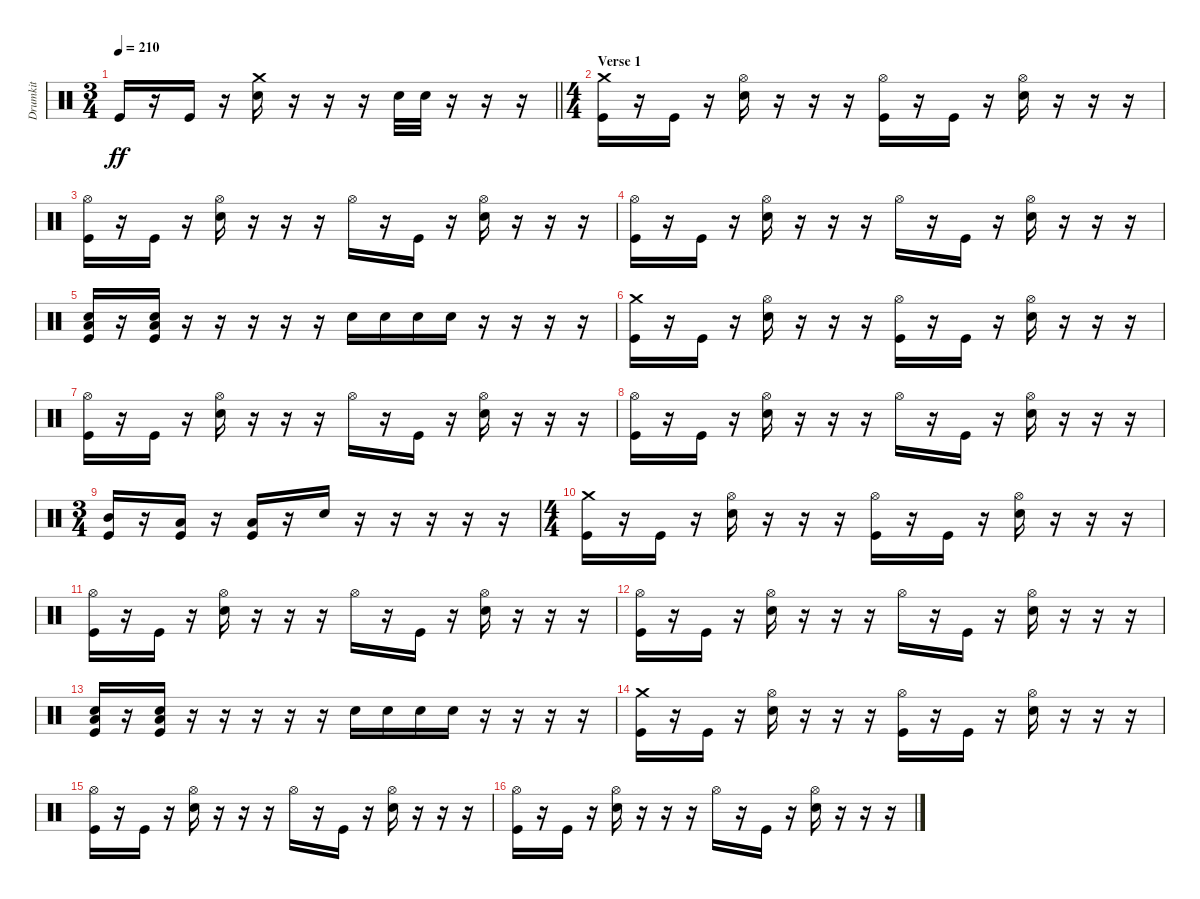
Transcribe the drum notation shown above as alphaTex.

\track ("Drumkit" "Drumkit") {instrument percussion}
\staff {score}
\articulation defaults
\ts (3 4)
\tempo 210
\clef neutral
\barLineRight lightlight
\ks c "Kick (hit)".16{dy ff}
r.16 "Kick (hit)".16 r.16 ("Crash medium (hit)" "Snare (hit) 2").16 r.16 r.16 r.16 "Snare (hit) 2".32 "Snare (hit) 2".32 r.16 r.16 r.16 |
\ts (4 4)
\section ("" "Verse 1")
("Crash medium (hit)" "Kick (hit)").16 r.16 "Kick (hit)".16 r.16 ("Hi-Hat (open)" "Snare (hit) 2").16 r.16 r.16 r.16 ("Hi-Hat (open)" "Kick (hit)").16 r.16 "Kick (hit)".16 r.16 ("Hi-Hat (open)" "Snare (hit) 2").16 r.16 r.16 r.16 |
("Hi-Hat (open)" "Kick (hit)").16 r.16 "Kick (hit)".16 r.16 ("Hi-Hat (open)" "Snare (hit) 2").16 r.16 r.16 r.16 "Hi-Hat (open)".16 r.16 "Kick (hit)".16 r.16 ("Hi-Hat (open)" "Snare (hit) 2").16 r.16 r.16 r.16 |
("Hi-Hat (open)" "Kick (hit)").16 r.16 "Kick (hit)".16 r.16 ("Hi-Hat (open)" "Snare (hit) 2").16 r.16 r.16 r.16 "Hi-Hat (open)".16 r.16 "Kick (hit)".16 r.16 ("Hi-Hat (open)" "Snare (hit) 2").16 r.16 r.16 r.16 |
("Low Floor Tom (hit)" "Snare (hit) 2" "Kick (hit)").16 r.16 ("Low Floor Tom (hit)" "Snare (hit) 2" "Kick (hit)").16 r.16 r.16 r.16 r.16 r.16 "Snare (hit) 2".16 "Snare (hit) 2".16 "Snare (hit) 2".16 "Snare (hit) 2".16 r.16 r.16 r.16 r.16 |
("Crash medium (hit)" "Kick (hit)").16 r.16 "Kick (hit)".16 r.16 ("Hi-Hat (open)" "Snare (hit) 2").16 r.16 r.16 r.16 ("Hi-Hat (open)" "Kick (hit)").16 r.16 "Kick (hit)".16 r.16 ("Hi-Hat (open)" "Snare (hit) 2").16 r.16 r.16 r.16 |
("Hi-Hat (open)" "Kick (hit)").16 r.16 "Kick (hit)".16 r.16 ("Hi-Hat (open)" "Snare (hit) 2").16 r.16 r.16 r.16 "Hi-Hat (open)".16 r.16 "Kick (hit)".16 r.16 ("Hi-Hat (open)" "Snare (hit) 2").16 r.16 r.16 r.16 |
("Hi-Hat (open)" "Kick (hit)").16 r.16 "Kick (hit)".16 r.16 ("Hi-Hat (open)" "Snare (hit) 2").16 r.16 r.16 r.16 "Hi-Hat (open)".16 r.16 "Kick (hit)".16 r.16 ("Hi-Hat (open)" "Snare (hit) 2").16 r.16 r.16 r.16 |
\ts (3 4)
("Mid Tom (hit)" "Kick (hit)").16 r.16 ("Low Tom (hit)" "Kick (hit)").16 r.16 ("Low Floor Tom (hit)" "Kick (hit)").16 r.16 "Snare (hit) 2".16 r.16 r.16 r.16 r.16 r.16 |
\ts (4 4)
("Crash medium (hit)" "Kick (hit)").16 r.16 "Kick (hit)".16 r.16 ("Hi-Hat (open)" "Snare (hit) 2").16 r.16 r.16 r.16 ("Hi-Hat (open)" "Kick (hit)").16 r.16 "Kick (hit)".16 r.16 ("Hi-Hat (open)" "Snare (hit) 2").16 r.16 r.16 r.16 |
("Hi-Hat (open)" "Kick (hit)").16 r.16 "Kick (hit)".16 r.16 ("Hi-Hat (open)" "Snare (hit) 2").16 r.16 r.16 r.16 "Hi-Hat (open)".16 r.16 "Kick (hit)".16 r.16 ("Hi-Hat (open)" "Snare (hit) 2").16 r.16 r.16 r.16 |
("Hi-Hat (open)" "Kick (hit)").16 r.16 "Kick (hit)".16 r.16 ("Hi-Hat (open)" "Snare (hit) 2").16 r.16 r.16 r.16 "Hi-Hat (open)".16 r.16 "Kick (hit)".16 r.16 ("Hi-Hat (open)" "Snare (hit) 2").16 r.16 r.16 r.16 |
("Low Floor Tom (hit)" "Snare (hit) 2" "Kick (hit)").16 r.16 ("Low Floor Tom (hit)" "Snare (hit) 2" "Kick (hit)").16 r.16 r.16 r.16 r.16 r.16 "Snare (hit) 2".16 "Snare (hit) 2".16 "Snare (hit) 2".16 "Snare (hit) 2".16 r.16 r.16 r.16 r.16 |
("Crash medium (hit)" "Kick (hit)").16 r.16 "Kick (hit)".16 r.16 ("Hi-Hat (open)" "Snare (hit) 2").16 r.16 r.16 r.16 ("Hi-Hat (open)" "Kick (hit)").16 r.16 "Kick (hit)".16 r.16 ("Hi-Hat (open)" "Snare (hit) 2").16 r.16 r.16 r.16 |
("Hi-Hat (open)" "Kick (hit)").16 r.16 "Kick (hit)".16 r.16 ("Hi-Hat (open)" "Snare (hit) 2").16 r.16 r.16 r.16 "Hi-Hat (open)".16 r.16 "Kick (hit)".16 r.16 ("Hi-Hat (open)" "Snare (hit) 2").16 r.16 r.16 r.16 |
("Hi-Hat (open)" "Kick (hit)").16 r.16 "Kick (hit)".16 r.16 ("Hi-Hat (open)" "Snare (hit) 2").16 r.16 r.16 r.16 "Hi-Hat (open)".16 r.16 "Kick (hit)".16 r.16 ("Hi-Hat (open)" "Snare (hit) 2").16 r.16 r.16 r.16
